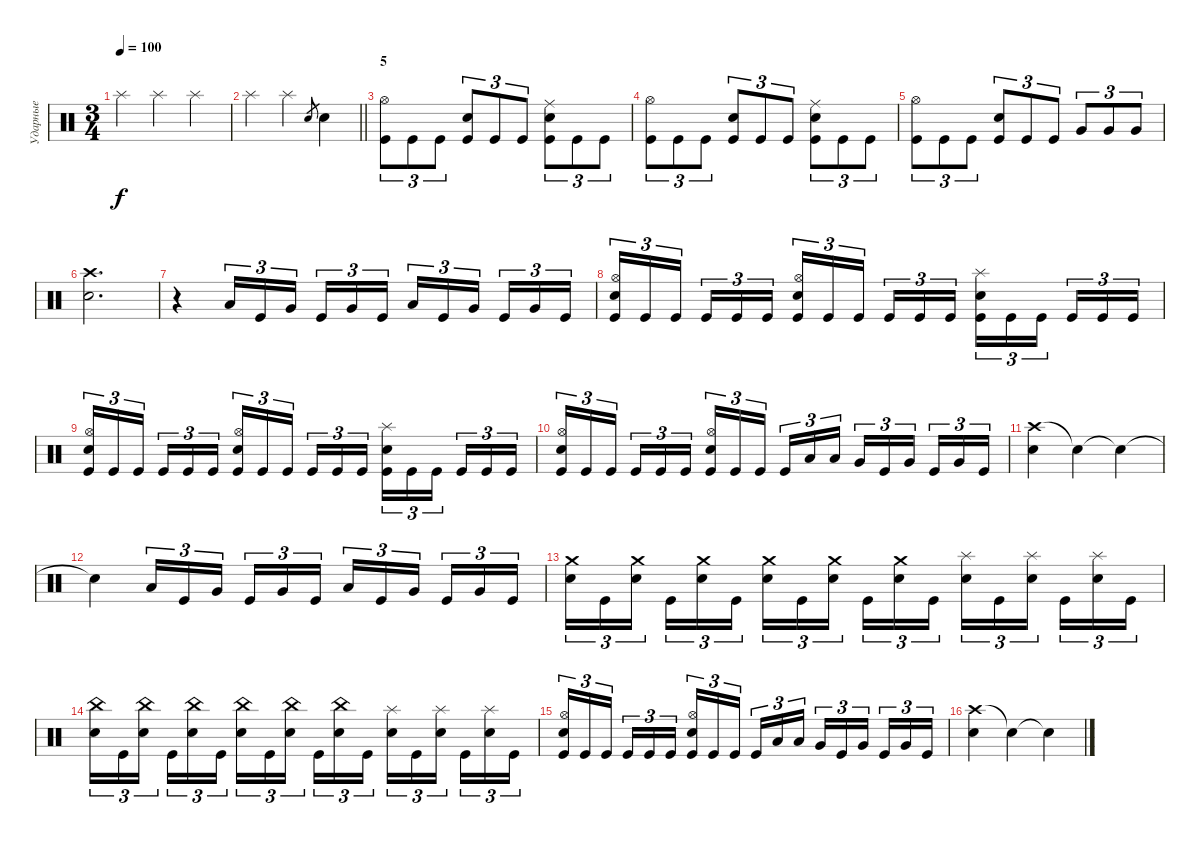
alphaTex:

\track ("Ударные" "Ударные") {instrument percussion}
\staff {score}
\articulation defaults
\ts (3 4)
\section ("" " ")
\tempo 100
\clef neutral
\ks c "Splash (hit)".4{dy f} "Splash (hit)".4 "Splash (hit)".4
|
\barLineRight lightlight "Splash (hit)".4 "Splash (hit)".4 "Electric Snare (hit)".8{gr} "Electric Snare (hit)".4
|
\section ("" "5")
("Hi-Hat (open)" "Kick (hit)").8{tu (3 2)} "Kick (hit)".8{tu (3 2)} "Kick (hit)".8{tu (3 2)} ("Electric Snare (hit)" "Kick (hit)").8{tu (3 2)} "Kick (hit)".8{tu (3 2)} "Kick (hit)".8{tu (3 2)} ("Ride (middle)" "Electric Snare (hit)" "Kick (hit)").8{tu (3 2)} "Kick (hit)".8{tu (3 2)} "Kick (hit)".8{tu (3 2)} |
("Hi-Hat (open)" "Kick (hit)").8{tu (3 2)} "Kick (hit)".8{tu (3 2)} "Kick (hit)".8{tu (3 2)} ("Electric Snare (hit)" "Kick (hit)").8{tu (3 2)} "Kick (hit)".8{tu (3 2)} "Kick (hit)".8{tu (3 2)} ("Ride (middle)" "Electric Snare (hit)" "Kick (hit)").8{tu (3 2)} "Kick (hit)".8{tu (3 2)} "Kick (hit)".8{tu (3 2)} |
("Hi-Hat (open)" "Kick (hit)").8{tu (3 2)} "Kick (hit)".8{tu (3 2)} "Kick (hit)".8{tu (3 2)} ("Electric Snare (hit)" "Kick (hit)").8{tu (3 2)} "Kick (hit)".8{tu (3 2)} "Kick (hit)".8{tu (3 2)} "Very Low Tom (hit)".8{tu (3 2)} "Very Low Tom (hit)".8{tu (3 2)} "Very Low Tom (hit)".8{tu (3 2)} |
("Crash high (hit)" "Electric Snare (hit)").2{d} |
r.4 "Low Tom (hit)".16{tu (3 2)} "Kick (hit)".16{tu (3 2)} "Very Low Tom (hit)".16{tu (3 2) beam splitsecondary} "Kick (hit)".16{tu (3 2)} "Very Low Tom (hit)".16{tu (3 2)} "Kick (hit)".16{tu (3 2)} "Low Tom (hit)".16{tu (3 2)} "Kick (hit)".16{tu (3 2)} "Very Low Tom (hit)".16{tu (3 2) beam splitsecondary} "Kick (hit)".16{tu (3 2)} "Very Low Tom (hit)".16{tu (3 2)} "Kick (hit)".16{tu (3 2)} |
("Hi-Hat (open)" "Electric Snare (hit)" "Kick (hit)").16{tu (3 2)} "Kick (hit)".16{tu (3 2)} "Kick (hit)".16{tu (3 2) beam splitsecondary} "Kick (hit)".16{tu (3 2)} "Kick (hit)".16{tu (3 2)} "Kick (hit)".16{tu (3 2)} ("Hi-Hat (open)" "Electric Snare (hit)" "Kick (hit)").16{tu (3 2)} "Kick (hit)".16{tu (3 2)} "Kick (hit)".16{tu (3 2) beam splitsecondary} "Kick (hit)".16{tu (3 2)} "Kick (hit)".16{tu (3 2)} "Kick (hit)".16{tu (3 2)} ("Splash (hit)" "Electric Snare (hit)" "Kick (hit)").16{tu (3 2)} "Kick (hit)".16{tu (3 2)} "Kick (hit)".16{tu (3 2) beam splitsecondary} "Kick (hit)".16{tu (3 2)} "Kick (hit)".16{tu (3 2)} "Kick (hit)".16{tu (3 2)} |
("Hi-Hat (open)" "Electric Snare (hit)" "Kick (hit)").16{tu (3 2)} "Kick (hit)".16{tu (3 2)} "Kick (hit)".16{tu (3 2) beam splitsecondary} "Kick (hit)".16{tu (3 2)} "Kick (hit)".16{tu (3 2)} "Kick (hit)".16{tu (3 2)} ("Hi-Hat (open)" "Electric Snare (hit)" "Kick (hit)").16{tu (3 2)} "Kick (hit)".16{tu (3 2)} "Kick (hit)".16{tu (3 2) beam splitsecondary} "Kick (hit)".16{tu (3 2)} "Kick (hit)".16{tu (3 2)} "Kick (hit)".16{tu (3 2)} ("Splash (hit)" "Electric Snare (hit)" "Kick (hit)").16{tu (3 2)} "Kick (hit)".16{tu (3 2)} "Kick (hit)".16{tu (3 2) beam splitsecondary} "Kick (hit)".16{tu (3 2)} "Kick (hit)".16{tu (3 2)} "Kick (hit)".16{tu (3 2)} |
("Hi-Hat (open)" "Electric Snare (hit)" "Kick (hit)").16{tu (3 2)} "Kick (hit)".16{tu (3 2)} "Kick (hit)".16{tu (3 2) beam splitsecondary} "Kick (hit)".16{tu (3 2)} "Kick (hit)".16{tu (3 2)} "Kick (hit)".16{tu (3 2)} ("Hi-Hat (open)" "Electric Snare (hit)" "Kick (hit)").16{tu (3 2)} "Kick (hit)".16{tu (3 2)} "Kick (hit)".16{tu (3 2) beam splitsecondary} "Kick (hit)".16{tu (3 2)} "Low Tom (hit)".16{tu (3 2)} "Low Tom (hit)".16{tu (3 2)} "Very Low Tom (hit)".16{tu (3 2)} "Kick (hit)".16{tu (3 2)} "Very Low Tom (hit)".16{tu (3 2) beam splitsecondary} "Kick (hit)".16{tu (3 2)} "Very Low Tom (hit)".16{tu (3 2)} "Kick (hit)".16{tu (3 2)} |
("Crash high (hit)" "Electric Snare (hit)").4 "Snare (hit)"{t}.4 "Snare (hit)"{t}.4 |
"Snare (hit)"{t}.4 "Low Tom (hit)".16{tu (3 2)} "Kick (hit)".16{tu (3 2)} "Very Low Tom (hit)".16{tu (3 2) beam splitsecondary} "Kick (hit)".16{tu (3 2)} "Very Low Tom (hit)".16{tu (3 2)} "Kick (hit)".16{tu (3 2)} "Low Tom (hit)".16{tu (3 2)} "Kick (hit)".16{tu (3 2)} "Very Low Tom (hit)".16{tu (3 2) beam splitsecondary} "Kick (hit)".16{tu (3 2)} "Very Low Tom (hit)".16{tu (3 2)} "Kick (hit)".16{tu (3 2)} |
("Crash medium (hit)" "Electric Snare (hit)").16{tu (3 2)} "Kick (hit)".16{tu (3 2)} ("Crash medium (hit)" "Electric Snare (hit)").16{tu (3 2) beam splitsecondary} "Kick (hit)".16{tu (3 2)} ("Crash medium (hit)" "Electric Snare (hit)").16{tu (3 2)} "Kick (hit)".16{tu (3 2)} ("Crash medium (hit)" "Electric Snare (hit)").16{tu (3 2)} "Kick (hit)".16{tu (3 2)} ("Crash medium (hit)" "Electric Snare (hit)").16{tu (3 2) beam splitsecondary} "Kick (hit)".16{tu (3 2)} ("Crash medium (hit)" "Electric Snare (hit)").16{tu (3 2)} "Kick (hit)".16{tu (3 2)} ("Splash (hit)" "Electric Snare (hit)").16{tu (3 2)} "Kick (hit)".16{tu (3 2)} ("Splash (hit)" "Electric Snare (hit)").16{tu (3 2) beam splitsecondary} "Kick (hit)".16{tu (3 2)} ("Splash (hit)" "Electric Snare (hit)").16{tu (3 2)} "Kick (hit)".16{tu (3 2)} |
("China (hit)" "Electric Snare (hit)").16{tu (3 2)} "Kick (hit)".16{tu (3 2)} ("China (hit)" "Electric Snare (hit)").16{tu (3 2) beam splitsecondary} "Kick (hit)".16{tu (3 2)} ("China (hit)" "Electric Snare (hit)").16{tu (3 2)} "Kick (hit)".16{tu (3 2)} ("China (hit)" "Electric Snare (hit)").16{tu (3 2)} "Kick (hit)".16{tu (3 2)} ("China (hit)" "Electric Snare (hit)").16{tu (3 2) beam splitsecondary} "Kick (hit)".16{tu (3 2)} ("China (hit)" "Electric Snare (hit)").16{tu (3 2)} "Kick (hit)".16{tu (3 2)} ("Splash (hit)" "Electric Snare (hit)").16{tu (3 2)} "Kick (hit)".16{tu (3 2)} ("Splash (hit)" "Electric Snare (hit)").16{tu (3 2) beam splitsecondary} "Kick (hit)".16{tu (3 2)} ("Splash (hit)" "Electric Snare (hit)").16{tu (3 2)} "Kick (hit)".16{tu (3 2)} |
("Hi-Hat (open)" "Electric Snare (hit)" "Kick (hit)").16{tu (3 2)} "Kick (hit)".16{tu (3 2)} "Kick (hit)".16{tu (3 2) beam splitsecondary} "Kick (hit)".16{tu (3 2)} "Kick (hit)".16{tu (3 2)} "Kick (hit)".16{tu (3 2)} ("Hi-Hat (open)" "Electric Snare (hit)" "Kick (hit)").16{tu (3 2)} "Kick (hit)".16{tu (3 2)} "Kick (hit)".16{tu (3 2) beam splitsecondary} "Kick (hit)".16{tu (3 2)} "Low Tom (hit)".16{tu (3 2)} "Low Tom (hit)".16{tu (3 2)} "Very Low Tom (hit)".16{tu (3 2)} "Kick (hit)".16{tu (3 2)} "Very Low Tom (hit)".16{tu (3 2) beam splitsecondary} "Kick (hit)".16{tu (3 2)} "Very Low Tom (hit)".16{tu (3 2)} "Kick (hit)".16{tu (3 2)} |
("Crash high (hit)" "Electric Snare (hit)").4 "Snare (hit)"{t}.4 "Snare (hit)"{t}.4
